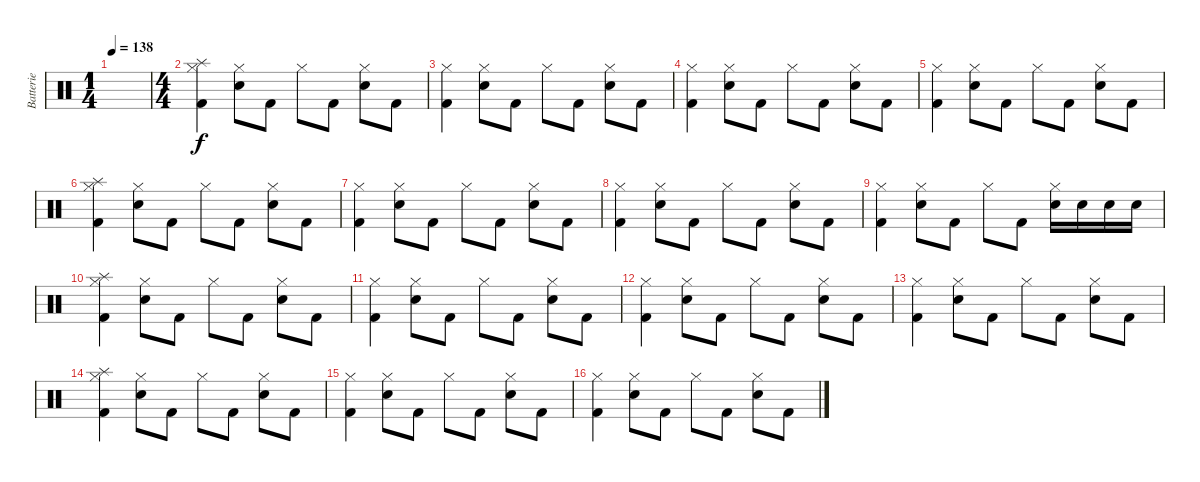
\track ("Batterie" "Batterie") {instrument percussion}
\staff {score}
\articulation defaults
\ts (1 4)
\tempo 138
\clef neutral
\ks c
|
\ts (4 4)
("Splash (hit)" "Hi-Hat (closed)" "Kick (hit) 2").4 ("Hi-Hat (closed)" "Snare (hit) 2").8 "Kick (hit) 2".8 "Hi-Hat (closed)".8 "Kick (hit) 2".8 ("Hi-Hat (closed)" "Snare (hit) 2").8 "Kick (hit) 2".8 |
("Hi-Hat (closed)" "Kick (hit) 2").4 ("Hi-Hat (closed)" "Snare (hit) 2").8 "Kick (hit) 2".8 "Hi-Hat (closed)".8 "Kick (hit) 2".8 ("Hi-Hat (closed)" "Snare (hit) 2").8 "Kick (hit) 2".8 |
("Hi-Hat (closed)" "Kick (hit) 2").4 ("Hi-Hat (closed)" "Snare (hit) 2").8 "Kick (hit) 2".8 "Hi-Hat (closed)".8 "Kick (hit) 2".8 ("Hi-Hat (closed)" "Snare (hit) 2").8 "Kick (hit) 2".8 |
("Hi-Hat (closed)" "Kick (hit) 2").4 ("Hi-Hat (closed)" "Snare (hit) 2").8 "Kick (hit) 2".8 "Hi-Hat (closed)".8 "Kick (hit) 2".8 ("Hi-Hat (closed)" "Snare (hit) 2").8 "Kick (hit) 2".8 |
("Splash (hit)" "Hi-Hat (closed)" "Kick (hit) 2").4 ("Hi-Hat (closed)" "Snare (hit) 2").8 "Kick (hit) 2".8 "Hi-Hat (closed)".8 "Kick (hit) 2".8 ("Hi-Hat (closed)" "Snare (hit) 2").8 "Kick (hit) 2".8 |
("Hi-Hat (closed)" "Kick (hit) 2").4 ("Hi-Hat (closed)" "Snare (hit) 2").8 "Kick (hit) 2".8 "Hi-Hat (closed)".8 "Kick (hit) 2".8 ("Hi-Hat (closed)" "Snare (hit) 2").8 "Kick (hit) 2".8 |
("Hi-Hat (closed)" "Kick (hit) 2").4 ("Hi-Hat (closed)" "Snare (hit) 2").8 "Kick (hit) 2".8 "Hi-Hat (closed)".8 "Kick (hit) 2".8 ("Hi-Hat (closed)" "Snare (hit) 2").8 "Kick (hit) 2".8 |
("Hi-Hat (closed)" "Kick (hit) 2").4 ("Hi-Hat (closed)" "Snare (hit) 2").8 "Kick (hit) 2".8 "Hi-Hat (closed)".8 "Kick (hit) 2".8 ("Hi-Hat (closed)" "Snare (hit) 2").16 "Snare (hit) 2".16 "Snare (hit) 2".16 "Snare (hit) 2".16 |
("Splash (hit)" "Hi-Hat (closed)" "Kick (hit) 2").4 ("Hi-Hat (closed)" "Snare (hit) 2").8 "Kick (hit) 2".8 "Hi-Hat (closed)".8 "Kick (hit) 2".8 ("Hi-Hat (closed)" "Snare (hit) 2").8 "Kick (hit) 2".8 |
("Hi-Hat (closed)" "Kick (hit) 2").4 ("Hi-Hat (closed)" "Snare (hit) 2").8 "Kick (hit) 2".8 "Hi-Hat (closed)".8 "Kick (hit) 2".8 ("Hi-Hat (closed)" "Snare (hit) 2").8 "Kick (hit) 2".8 |
("Hi-Hat (closed)" "Kick (hit) 2").4 ("Hi-Hat (closed)" "Snare (hit) 2").8 "Kick (hit) 2".8 "Hi-Hat (closed)".8 "Kick (hit) 2".8 ("Hi-Hat (closed)" "Snare (hit) 2").8 "Kick (hit) 2".8 |
("Hi-Hat (closed)" "Kick (hit) 2").4 ("Hi-Hat (closed)" "Snare (hit) 2").8 "Kick (hit) 2".8 "Hi-Hat (closed)".8 "Kick (hit) 2".8 ("Hi-Hat (closed)" "Snare (hit) 2").8 "Kick (hit) 2".8 |
("Splash (hit)" "Hi-Hat (closed)" "Kick (hit) 2").4 ("Hi-Hat (closed)" "Snare (hit) 2").8 "Kick (hit) 2".8 "Hi-Hat (closed)".8 "Kick (hit) 2".8 ("Hi-Hat (closed)" "Snare (hit) 2").8 "Kick (hit) 2".8 |
("Hi-Hat (closed)" "Kick (hit) 2").4 ("Hi-Hat (closed)" "Snare (hit) 2").8 "Kick (hit) 2".8 "Hi-Hat (closed)".8 "Kick (hit) 2".8 ("Hi-Hat (closed)" "Snare (hit) 2").8 "Kick (hit) 2".8 |
("Hi-Hat (closed)" "Kick (hit) 2").4 ("Hi-Hat (closed)" "Snare (hit) 2").8 "Kick (hit) 2".8 "Hi-Hat (closed)".8 "Kick (hit) 2".8 ("Hi-Hat (closed)" "Snare (hit) 2").8 "Kick (hit) 2".8
